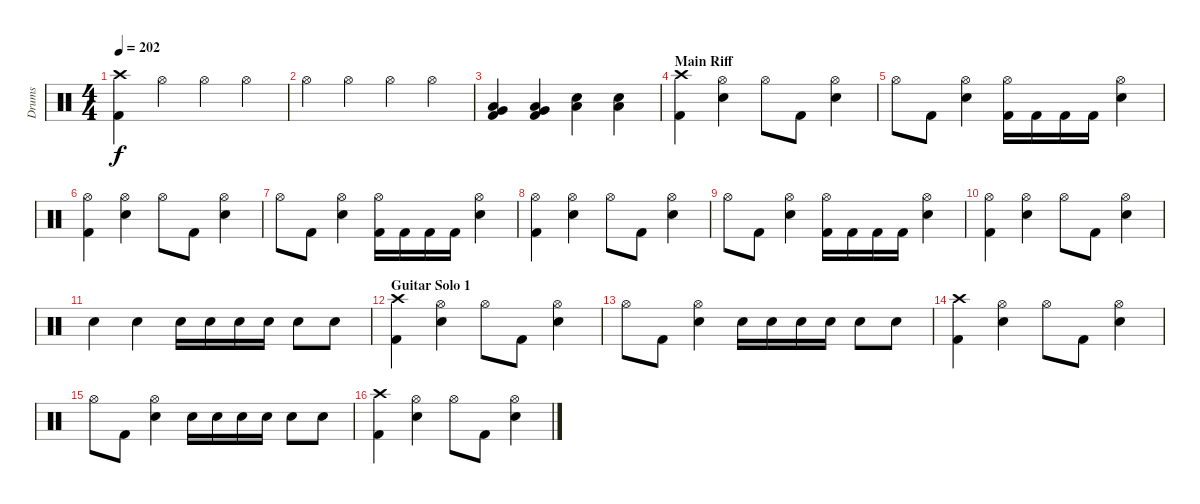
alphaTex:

\track ("Drums" "Drums") {instrument percussion}
\staff {score}
\articulation defaults
\ts (4 4)
\tempo 202
\clef neutral
\ks c
("Crash high (hit)" "Kick (hit) 2").4{dy f} "Hi-Hat (open)".4 "Hi-Hat (open)".4 "Hi-Hat (open)".4 |
"Hi-Hat (open)".4 "Hi-Hat (open)".4 "Hi-Hat (open)".4 "Hi-Hat (open)".4 |
("Very Low Tom (hit)" "Low Floor Tom (hit)" "Kick (hit) 2").4 ("Very Low Tom (hit)" "Low Floor Tom (hit)" "Kick (hit) 2").4 ("Low Floor Tom (hit)" "Electric Snare (hit)").4 ("Low Floor Tom (hit)" "Electric Snare (hit)").4 |
\section ("" "Main Riff")
("Crash high (hit)" "Kick (hit) 2").4 ("Hi-Hat (open)" "Electric Snare (hit)").4 "Hi-Hat (open)".8 "Kick (hit) 2".8 ("Hi-Hat (open)" "Electric Snare (hit)").4 |
"Hi-Hat (open)".8 "Kick (hit) 2".8 ("Hi-Hat (open)" "Electric Snare (hit)").4 ("Hi-Hat (open)" "Kick (hit) 2").16 "Kick (hit) 2".16 "Kick (hit) 2".16 "Kick (hit) 2".16 ("Hi-Hat (open)" "Electric Snare (hit)").4 |
("Hi-Hat (open)" "Kick (hit) 2").4 ("Hi-Hat (open)" "Electric Snare (hit)").4 "Hi-Hat (open)".8 "Kick (hit) 2".8 ("Hi-Hat (open)" "Electric Snare (hit)").4 |
"Hi-Hat (open)".8 "Kick (hit) 2".8 ("Hi-Hat (open)" "Electric Snare (hit)").4 ("Hi-Hat (open)" "Kick (hit) 2").16 "Kick (hit) 2".16 "Kick (hit) 2".16 "Kick (hit) 2".16 ("Hi-Hat (open)" "Electric Snare (hit)").4 |
("Hi-Hat (open)" "Kick (hit) 2").4 ("Hi-Hat (open)" "Electric Snare (hit)").4 "Hi-Hat (open)".8 "Kick (hit) 2".8 ("Hi-Hat (open)" "Electric Snare (hit)").4 |
"Hi-Hat (open)".8 "Kick (hit) 2".8 ("Hi-Hat (open)" "Electric Snare (hit)").4 ("Hi-Hat (open)" "Kick (hit) 2").16 "Kick (hit) 2".16 "Kick (hit) 2".16 "Kick (hit) 2".16 ("Hi-Hat (open)" "Electric Snare (hit)").4 |
("Hi-Hat (open)" "Kick (hit) 2").4 ("Hi-Hat (open)" "Electric Snare (hit)").4 "Hi-Hat (open)".8 "Kick (hit) 2".8 ("Hi-Hat (open)" "Electric Snare (hit)").4 |
"Electric Snare (hit)".4 "Electric Snare (hit)".4 "Electric Snare (hit)".16 "Electric Snare (hit)".16 "Electric Snare (hit)".16 "Electric Snare (hit)".16 "Electric Snare (hit)".8 "Electric Snare (hit)".8 |
\section ("" "Guitar Solo 1")
("Crash high (hit)" "Kick (hit) 2").4 ("Hi-Hat (open)" "Electric Snare (hit)").4 "Hi-Hat (open)".8 "Kick (hit) 2".8 ("Hi-Hat (open)" "Electric Snare (hit)").4 |
"Hi-Hat (open)".8 "Kick (hit) 2".8 ("Hi-Hat (open)" "Electric Snare (hit)").4 "Electric Snare (hit)".16 "Electric Snare (hit)".16 "Electric Snare (hit)".16 "Electric Snare (hit)".16 "Electric Snare (hit)".8 "Electric Snare (hit)".8 |
("Crash high (hit)" "Kick (hit) 2").4 ("Hi-Hat (open)" "Electric Snare (hit)").4 "Hi-Hat (open)".8 "Kick (hit) 2".8 ("Hi-Hat (open)" "Electric Snare (hit)").4 |
"Hi-Hat (open)".8 "Kick (hit) 2".8 ("Hi-Hat (open)" "Electric Snare (hit)").4 "Electric Snare (hit)".16 "Electric Snare (hit)".16 "Electric Snare (hit)".16 "Electric Snare (hit)".16 "Electric Snare (hit)".8 "Electric Snare (hit)".8 |
("Crash high (hit)" "Kick (hit) 2").4 ("Hi-Hat (open)" "Electric Snare (hit)").4 "Hi-Hat (open)".8 "Kick (hit) 2".8 ("Hi-Hat (open)" "Electric Snare (hit)").4
